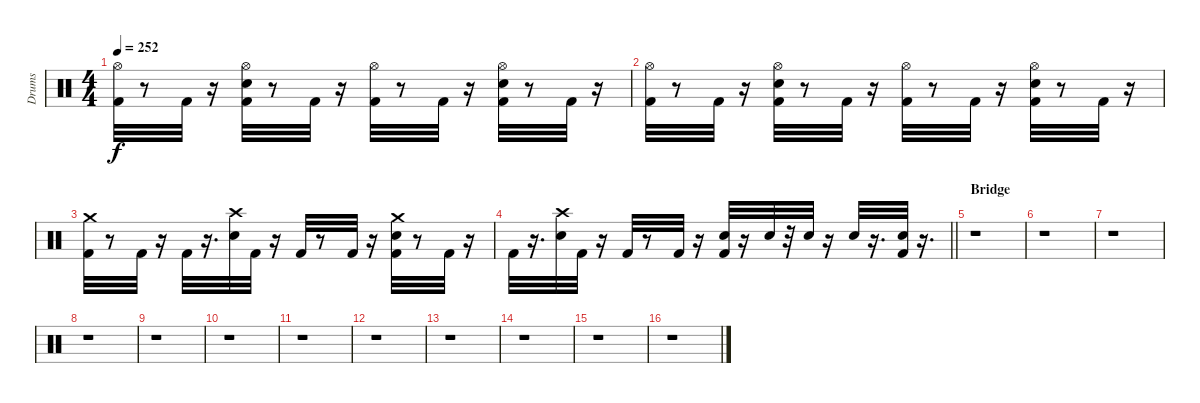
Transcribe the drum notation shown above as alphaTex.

\track ("Drums" "Drums") {instrument percussion}
\staff {score}
\articulation defaults
\ts (4 4)
\tempo 252
\clef neutral
\ks c
("Hi-Hat (open)" "Kick (hit) 2").32{dy f} r.8 "Kick (hit) 2".32 r.16 ("Hi-Hat (open)" "Snare (hit) 2" "Kick (hit) 2").32 r.8 "Kick (hit) 2".32 r.16 ("Hi-Hat (open)" "Kick (hit) 2").32 r.8 "Kick (hit) 2".32 r.16 ("Hi-Hat (open)" "Snare (hit) 2" "Kick (hit) 2").32 r.8 "Kick (hit) 2".32 r.16 |
("Kick (hit) 2" "Hi-Hat (open)").32 r.8 "Kick (hit) 2".32 r.16 ("Kick (hit) 2" "Snare (hit) 2" "Hi-Hat (open)").32 r.8 "Kick (hit) 2".32 r.16 ("Kick (hit) 2" "Hi-Hat (open)").32 r.8 "Kick (hit) 2".32 r.16 ("Hi-Hat (open)" "Snare (hit) 2" "Kick (hit) 2").32 r.8 "Kick (hit) 2".32 r.16 |
("Kick (hit) 2" "Crash medium (hit)").32 r.8 "Kick (hit) 2".32 r.16 "Kick (hit) 2".32 r.16{d} ("Snare (hit) 2" "Crash high (hit)").32 "Kick (hit) 2".32 r.16 "Kick (hit) 2".32 r.8 "Kick (hit) 2".32 r.16 ("Crash medium (hit)" "Kick (hit) 2" "Snare (hit) 2").32 r.8 "Kick (hit) 2".32 r.16 |
\barLineRight lightlight "Kick (hit) 2".32
r.16{d} ("Crash high (hit)" "Snare (hit) 2").32 "Kick (hit) 2".32 r.16 "Kick (hit) 2".32 r.8 "Kick (hit) 2".32 r.16 ("Snare (hit) 2" "Kick (hit) 2").32 r.16 "Snare (hit) 2".32 r.32 "Snare (hit) 2".32 r.16 "Snare (hit) 2".32 r.16{d} ("Kick (hit) 2" "Snare (hit) 2").32 r.16{d} |
\section ("" "Bridge")
r.1 |
r.1 |
r.1 |
r.1 |
r.1 |
r.1 |
r.1 |
r.1 |
r.1 |
r.1 |
r.1 |
r.1
